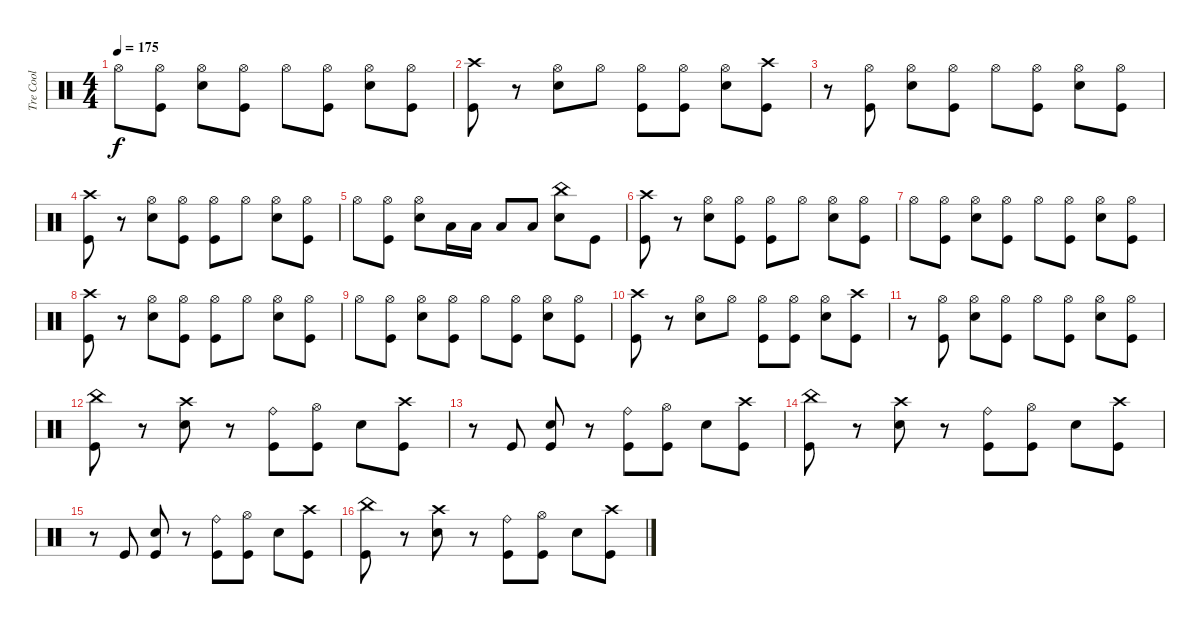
\track ("Tre Cool" "Tre Cool") {instrument percussion}
\staff {score}
\articulation defaults
\ts (4 4)
\tempo 175
\clef neutral
\ks c "Hi-Hat (open)".8{dy f}
("Kick (hit)" "Hi-Hat (open)").8 ("Snare (hit) 2" "Hi-Hat (open)").8 ("Kick (hit)" "Hi-Hat (open)").8 "Hi-Hat (open)".8 ("Kick (hit)" "Hi-Hat (open)").8 ("Snare (hit) 2" "Hi-Hat (open)").8 ("Kick (hit)" "Hi-Hat (open)").8 |
("Kick (hit)" "Crash high (hit)").8 r.8 ("Snare (hit) 2" "Hi-Hat (open)").8 "Hi-Hat (open)".8 ("Kick (hit)" "Hi-Hat (open)").8 ("Kick (hit)" "Hi-Hat (open)").8 ("Snare (hit) 2" "Hi-Hat (open)").8 ("Kick (hit)" "Crash high (hit)").8 |
r.8 ("Kick (hit)" "Hi-Hat (open)").8 ("Snare (hit) 2" "Hi-Hat (open)").8 ("Kick (hit)" "Hi-Hat (open)").8 "Hi-Hat (open)".8 ("Kick (hit)" "Hi-Hat (open)").8 ("Snare (hit) 2" "Hi-Hat (open)").8 ("Kick (hit)" "Hi-Hat (open)").8 |
("Kick (hit)" "Crash high (hit)").8 r.8 ("Snare (hit) 2" "Hi-Hat (open)").8 ("Kick (hit)" "Hi-Hat (open)").8 ("Kick (hit)" "Hi-Hat (open)").8 "Hi-Hat (open)".8 ("Snare (hit) 2" "Hi-Hat (open)").8 ("Kick (hit)" "Hi-Hat (open)").8 |
"Hi-Hat (open)".8 ("Kick (hit)" "Hi-Hat (open)").8 ("Snare (hit) 2" "Hi-Hat (open)").8 "Low Floor Tom (hit)".16 "Low Floor Tom (hit)".16 "Low Floor Tom (hit)".8 "Low Floor Tom (hit)".8 ("Snare (hit) 2" "China (hit)").8 "Kick (hit)".8 |
("Kick (hit)" "Crash high (hit)").8 r.8 ("Snare (hit) 2" "Hi-Hat (open)").8 ("Kick (hit)" "Hi-Hat (open)").8 ("Kick (hit)" "Hi-Hat (open)").8 "Hi-Hat (open)".8 ("Snare (hit) 2" "Hi-Hat (open)").8 ("Kick (hit)" "Hi-Hat (open)").8 |
"Hi-Hat (open)".8 ("Kick (hit)" "Hi-Hat (open)").8 ("Snare (hit) 2" "Hi-Hat (open)").8 ("Kick (hit)" "Hi-Hat (open)").8 "Hi-Hat (open)".8 ("Kick (hit)" "Hi-Hat (open)").8 ("Snare (hit) 2" "Hi-Hat (open)").8 ("Kick (hit)" "Hi-Hat (open)").8 |
("Kick (hit)" "Crash high (hit)").8 r.8 ("Snare (hit) 2" "Hi-Hat (open)").8 ("Kick (hit)" "Hi-Hat (open)").8 ("Kick (hit)" "Hi-Hat (open)").8 "Hi-Hat (open)".8 ("Snare (hit) 2" "Hi-Hat (open)").8 ("Kick (hit)" "Hi-Hat (open)").8 |
"Hi-Hat (open)".8 ("Kick (hit)" "Hi-Hat (open)").8 ("Snare (hit) 2" "Hi-Hat (open)").8 ("Kick (hit)" "Hi-Hat (open)").8 "Hi-Hat (open)".8 ("Kick (hit)" "Hi-Hat (open)").8 ("Snare (hit) 2" "Hi-Hat (open)").8 ("Kick (hit)" "Hi-Hat (open)").8 |
("Kick (hit)" "Crash high (hit)").8 r.8 ("Snare (hit) 2" "Hi-Hat (open)").8 "Hi-Hat (open)".8 ("Kick (hit)" "Hi-Hat (open)").8 ("Kick (hit)" "Hi-Hat (open)").8 ("Snare (hit) 2" "Hi-Hat (open)").8 ("Kick (hit)" "Crash high (hit)").8 |
r.8 ("Kick (hit)" "Hi-Hat (open)").8 ("Snare (hit) 2" "Hi-Hat (open)").8 ("Kick (hit)" "Hi-Hat (open)").8 "Hi-Hat (open)".8 ("Kick (hit)" "Hi-Hat (open)").8 ("Snare (hit) 2" "Hi-Hat (open)").8 ("Kick (hit)" "Hi-Hat (open)").8 |
("Kick (hit)" "China (hit)").8 r.8 ("Snare (hit) 2" "Crash high (hit)").8 r.8 ("Kick (hit)" "Ride (bell)").8 ("Kick (hit)" "Hi-Hat (open)").8 "Snare (hit) 2".8 ("Kick (hit)" "Crash high (hit)").8 |
r.8 "Kick (hit)".8 ("Snare (hit) 2" "Kick (hit)").8 r.8 ("Kick (hit)" "Ride (bell)").8 ("Kick (hit)" "Hi-Hat (open)").8 "Snare (hit) 2".8 ("Kick (hit)" "Crash high (hit)").8 |
("Kick (hit)" "China (hit)").8 r.8 ("Snare (hit) 2" "Crash high (hit)").8 r.8 ("Kick (hit)" "Ride (bell)").8 ("Kick (hit)" "Hi-Hat (open)").8 "Snare (hit) 2".8 ("Kick (hit)" "Crash high (hit)").8 |
r.8 "Kick (hit)".8 ("Snare (hit) 2" "Kick (hit)").8 r.8 ("Kick (hit)" "Ride (bell)").8 ("Kick (hit)" "Hi-Hat (open)").8 "Snare (hit) 2".8 ("Kick (hit)" "Crash high (hit)").8 |
("Kick (hit)" "China (hit)").8 r.8 ("Snare (hit) 2" "Crash high (hit)").8 r.8 ("Kick (hit)" "Ride (bell)").8 ("Kick (hit)" "Hi-Hat (open)").8 "Snare (hit) 2".8 ("Kick (hit)" "Crash high (hit)").8
